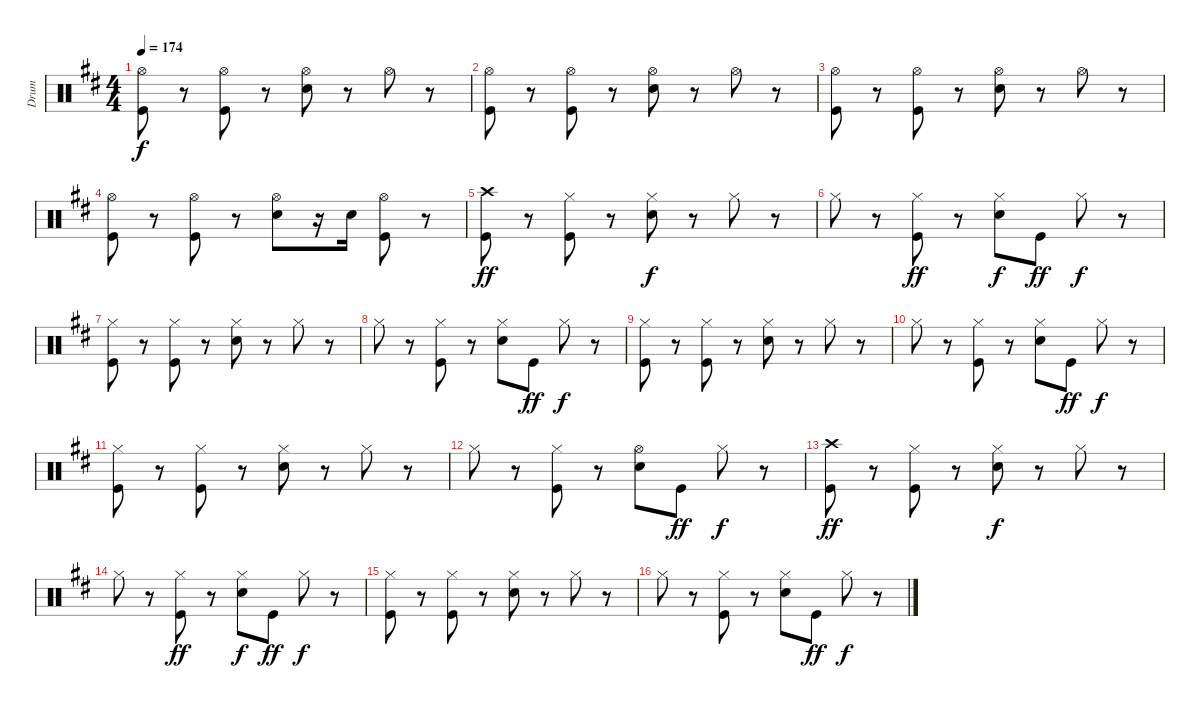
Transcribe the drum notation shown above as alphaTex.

\track ("Drum" "Drum") {instrument percussion}
\staff {score}
\articulation defaults
\ts (4 4)
\tempo 174
\clef neutral
\ks d
("Hi-Hat (open)" "Kick (hit)").8{dy f} r.8 ("Hi-Hat (open)" "Kick (hit)").8 r.8 ("Hi-Hat (open)" "Electric Snare (hit)").8 r.8 "Hi-Hat (open)".8 r.8 |
("Hi-Hat (open)" "Kick (hit)").8 r.8 ("Hi-Hat (open)" "Kick (hit)").8 r.8 ("Hi-Hat (open)" "Electric Snare (hit)").8 r.8 "Hi-Hat (open)".8 r.8 |
("Hi-Hat (open)" "Kick (hit)").8 r.8 ("Hi-Hat (open)" "Kick (hit)").8 r.8 ("Hi-Hat (open)" "Electric Snare (hit)").8 r.8 "Hi-Hat (open)".8 r.8 |
("Hi-Hat (open)" "Kick (hit)").8 r.8 ("Hi-Hat (open)" "Kick (hit)").8 r.8 ("Hi-Hat (open)" "Electric Snare (hit)").8 r.16 "Electric Snare (hit)".16 ("Hi-Hat (open)" "Kick (hit)").8 r.8 |
("Crash high (hit)" "Kick (hit)").8{dy ff} r.8 ("Hi-Hat (closed)" "Kick (hit)").8 r.8 ("Hi-Hat (closed)" "Snare (hit) 2").8{dy f} r.8 "Hi-Hat (closed)".8 r.8 |
"Hi-Hat (closed)".8 r.8 ("Hi-Hat (closed)" "Kick (hit)").8{dy ff} r.8 ("Hi-Hat (closed)" "Snare (hit) 2").8{dy f} "Kick (hit)".8{dy ff} "Hi-Hat (closed)".8{dy f} r.8 |
("Hi-Hat (closed)" "Kick (hit)").8 r.8 ("Hi-Hat (closed)" "Kick (hit)").8 r.8 ("Hi-Hat (closed)" "Snare (hit) 2").8 r.8 "Hi-Hat (closed)".8 r.8 |
"Hi-Hat (closed)".8 r.8 ("Hi-Hat (closed)" "Kick (hit)").8 r.8 ("Hi-Hat (closed)" "Snare (hit) 2").8 "Kick (hit)".8{dy ff} "Hi-Hat (closed)".8{dy f} r.8 |
("Hi-Hat (closed)" "Kick (hit)").8 r.8 ("Hi-Hat (closed)" "Kick (hit)").8 r.8 ("Hi-Hat (closed)" "Snare (hit) 2").8 r.8 "Hi-Hat (closed)".8 r.8 |
"Hi-Hat (closed)".8 r.8 ("Hi-Hat (closed)" "Kick (hit)").8 r.8 ("Hi-Hat (closed)" "Snare (hit) 2").8 "Kick (hit)".8{dy ff} "Hi-Hat (closed)".8{dy f} r.8 |
("Hi-Hat (closed)" "Kick (hit)").8 r.8 ("Hi-Hat (closed)" "Kick (hit)").8 r.8 ("Hi-Hat (closed)" "Snare (hit) 2").8 r.8 "Hi-Hat (closed)".8 r.8 |
"Hi-Hat (closed)".8 r.8 ("Hi-Hat (closed)" "Kick (hit)").8 r.8 ("Hi-Hat (open)" "Snare (hit) 2").8 "Kick (hit)".8{dy ff} "Hi-Hat (closed)".8{dy f} r.8 |
("Crash high (hit)" "Kick (hit)").8{dy ff} r.8 ("Hi-Hat (closed)" "Kick (hit)").8 r.8 ("Hi-Hat (closed)" "Snare (hit) 2").8{dy f} r.8 "Hi-Hat (closed)".8 r.8 |
"Hi-Hat (closed)".8 r.8 ("Hi-Hat (closed)" "Kick (hit)").8{dy ff} r.8 ("Hi-Hat (closed)" "Snare (hit) 2").8{dy f} "Kick (hit)".8{dy ff} "Hi-Hat (closed)".8{dy f} r.8 |
("Hi-Hat (closed)" "Kick (hit)").8 r.8 ("Hi-Hat (closed)" "Kick (hit)").8 r.8 ("Hi-Hat (closed)" "Snare (hit) 2").8 r.8 "Hi-Hat (closed)".8 r.8 |
"Hi-Hat (closed)".8 r.8 ("Hi-Hat (closed)" "Kick (hit)").8 r.8 ("Hi-Hat (closed)" "Snare (hit) 2").8 "Kick (hit)".8{dy ff} "Hi-Hat (closed)".8{dy f} r.8
